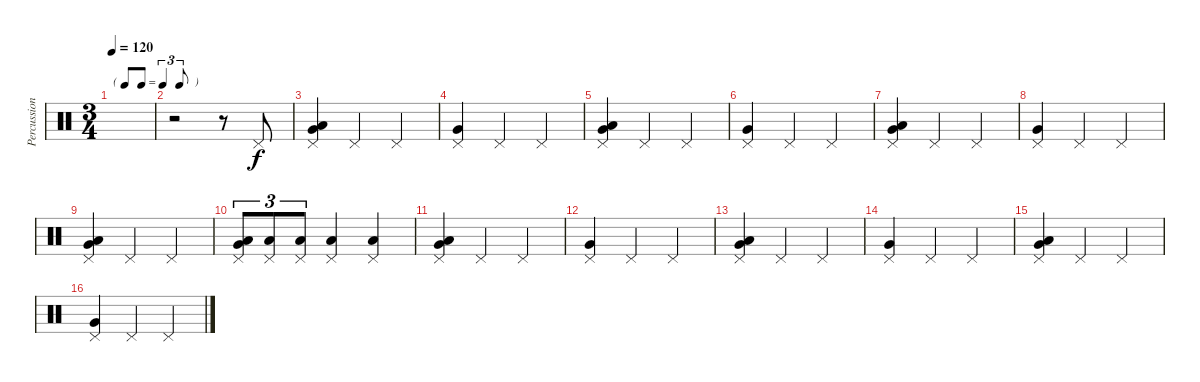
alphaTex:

\track ("Percussions" "Percussion") {instrument percussion}
\staff {score}
\articulation defaults
\ts (3 4)
\tf triplet8th
\tempo 120
\clef neutral
\ks c
|
r.2 r.8 "Pedal Hi-Hat (hit)".8 |
("Pedal Hi-Hat (hit)" "Low Tom (hit)" "Very Low Tom (hit)").4 "Pedal Hi-Hat (hit)".4 "Pedal Hi-Hat (hit)".4 |
("Pedal Hi-Hat (hit)" "Very Low Tom (hit)").4 "Pedal Hi-Hat (hit)".4 "Pedal Hi-Hat (hit)".4 |
("Pedal Hi-Hat (hit)" "Low Tom (hit)" "Very Low Tom (hit)").4 "Pedal Hi-Hat (hit)".4 "Pedal Hi-Hat (hit)".4 |
("Pedal Hi-Hat (hit)" "Very Low Tom (hit)").4 "Pedal Hi-Hat (hit)".4 "Pedal Hi-Hat (hit)".4 |
("Pedal Hi-Hat (hit)" "Low Tom (hit)" "Very Low Tom (hit)").4 "Pedal Hi-Hat (hit)".4 "Pedal Hi-Hat (hit)".4 |
("Pedal Hi-Hat (hit)" "Very Low Tom (hit)").4 "Pedal Hi-Hat (hit)".4 "Pedal Hi-Hat (hit)".4 |
("Pedal Hi-Hat (hit)" "Low Tom (hit)" "Very Low Tom (hit)").4 "Pedal Hi-Hat (hit)".4 "Pedal Hi-Hat (hit)".4 |
("Pedal Hi-Hat (hit)" "Low Tom (hit)" "Very Low Tom (hit)").8{tu (3 2)} ("Pedal Hi-Hat (hit)" "Low Tom (hit)").8{tu (3 2)} ("Pedal Hi-Hat (hit)" "Low Tom (hit)").8{tu (3 2)} ("Pedal Hi-Hat (hit)" "Low Tom (hit)").4 ("Pedal Hi-Hat (hit)" "Low Tom (hit)").4 |
("Pedal Hi-Hat (hit)" "Low Tom (hit)" "Very Low Tom (hit)").4 "Pedal Hi-Hat (hit)".4 "Pedal Hi-Hat (hit)".4 |
("Pedal Hi-Hat (hit)" "Very Low Tom (hit)").4 "Pedal Hi-Hat (hit)".4 "Pedal Hi-Hat (hit)".4 |
("Pedal Hi-Hat (hit)" "Low Tom (hit)" "Very Low Tom (hit)").4 "Pedal Hi-Hat (hit)".4 "Pedal Hi-Hat (hit)".4 |
("Pedal Hi-Hat (hit)" "Very Low Tom (hit)").4 "Pedal Hi-Hat (hit)".4 "Pedal Hi-Hat (hit)".4 |
("Pedal Hi-Hat (hit)" "Low Tom (hit)" "Very Low Tom (hit)").4 "Pedal Hi-Hat (hit)".4 "Pedal Hi-Hat (hit)".4 |
("Pedal Hi-Hat (hit)" "Very Low Tom (hit)").4 "Pedal Hi-Hat (hit)".4 "Pedal Hi-Hat (hit)".4
